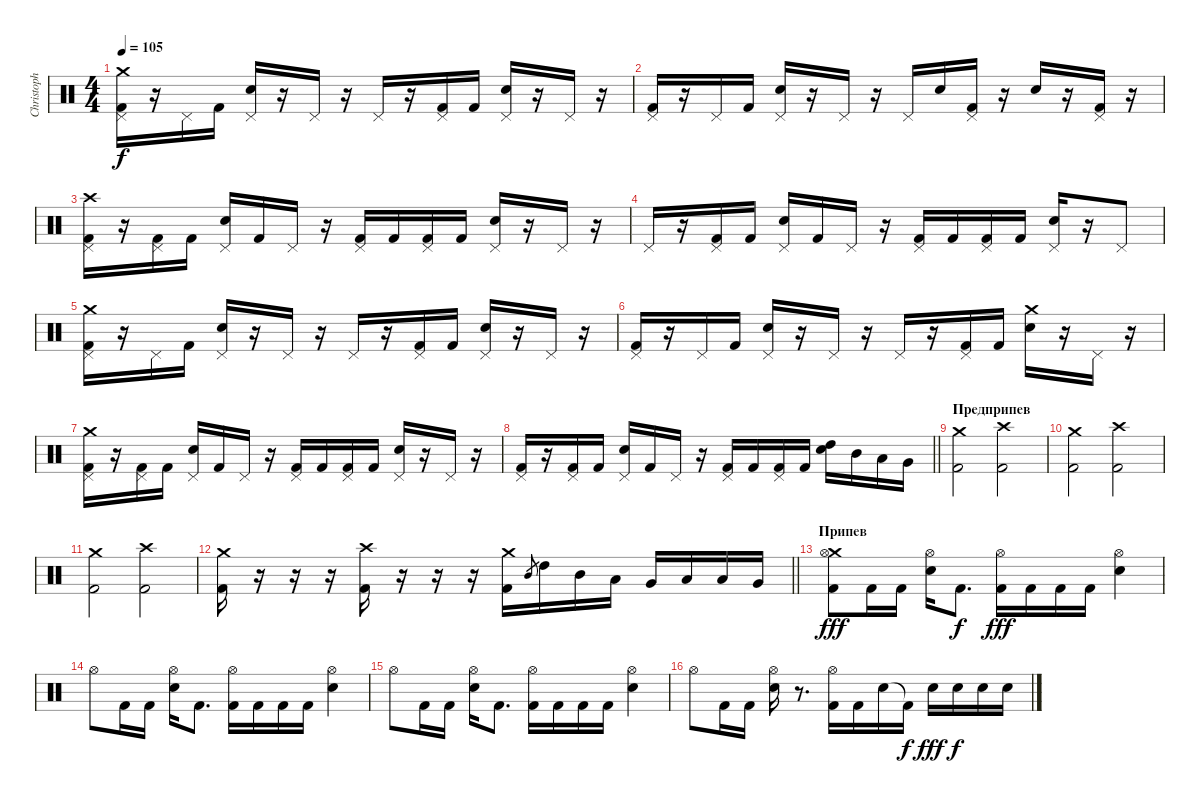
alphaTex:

\track ("Christoph Schneider" "Christoph ") {instrument percussion}
\staff {score}
\articulation defaults
\ts (4 4)
\tempo 105
\clef neutral
\ks c
("Pedal Hi-Hat (hit)" "Kick (hit) 2" "Crash medium (hit)").16{dy f} r.16 "Pedal Hi-Hat (hit)".16 "Kick (hit) 2".16 ("Pedal Hi-Hat (hit)" "Electric Snare (hit)").16 r.16 "Pedal Hi-Hat (hit)".16 r.16 "Pedal Hi-Hat (hit)".16 r.16 ("Pedal Hi-Hat (hit)" "Kick (hit) 2").16 "Kick (hit) 2".16 ("Pedal Hi-Hat (hit)" "Electric Snare (hit)").16 r.16 "Pedal Hi-Hat (hit)".16 r.16 |
("Pedal Hi-Hat (hit)" "Kick (hit) 2").16 r.16 "Pedal Hi-Hat (hit)".16 "Kick (hit) 2".16 ("Pedal Hi-Hat (hit)" "Electric Snare (hit)").16 r.16 "Pedal Hi-Hat (hit)".16 r.16 "Pedal Hi-Hat (hit)".16 "Electric Snare (hit)".16 ("Pedal Hi-Hat (hit)" "Kick (hit) 2").16 r.16 "Electric Snare (hit)".16 r.16 ("Pedal Hi-Hat (hit)" "Kick (hit) 2").16 r.16 |
("Kick (hit) 2" "Crash high (hit)" "Pedal Hi-Hat (hit)").16 r.16 ("Pedal Hi-Hat (hit)" "Kick (hit) 2").16 "Kick (hit) 2".16 ("Pedal Hi-Hat (hit)" "Electric Snare (hit)").16 "Kick (hit) 2".16 "Pedal Hi-Hat (hit)".16 r.16 ("Pedal Hi-Hat (hit)" "Kick (hit) 2").16 "Kick (hit) 2".16 ("Pedal Hi-Hat (hit)" "Kick (hit) 2").16 "Kick (hit) 2".16 ("Pedal Hi-Hat (hit)" "Electric Snare (hit)").16 r.16 "Pedal Hi-Hat (hit)".16 r.16 |
"Pedal Hi-Hat (hit)".16 r.16 ("Pedal Hi-Hat (hit)" "Kick (hit) 2").16 "Kick (hit) 2".16 ("Pedal Hi-Hat (hit)" "Electric Snare (hit)").16 "Kick (hit) 2".16 "Pedal Hi-Hat (hit)".16 r.16 ("Pedal Hi-Hat (hit)" "Kick (hit) 2").16 "Kick (hit) 2".16 ("Pedal Hi-Hat (hit)" "Kick (hit) 2").16 "Kick (hit) 2".16 ("Pedal Hi-Hat (hit)" "Electric Snare (hit)").16 r.16 "Pedal Hi-Hat (hit)".8 |
("Pedal Hi-Hat (hit)" "Kick (hit) 2" "Crash medium (hit)").16 r.16 "Pedal Hi-Hat (hit)".16 "Kick (hit) 2".16 ("Pedal Hi-Hat (hit)" "Electric Snare (hit)").16 r.16 "Pedal Hi-Hat (hit)".16 r.16 "Pedal Hi-Hat (hit)".16 r.16 ("Pedal Hi-Hat (hit)" "Kick (hit) 2").16 "Kick (hit) 2".16 ("Pedal Hi-Hat (hit)" "Electric Snare (hit)").16 r.16 "Pedal Hi-Hat (hit)".16 r.16 |
("Pedal Hi-Hat (hit)" "Kick (hit) 2").16 r.16 "Pedal Hi-Hat (hit)".16 "Kick (hit) 2".16 ("Pedal Hi-Hat (hit)" "Electric Snare (hit)").16 r.16 "Pedal Hi-Hat (hit)".16 r.16 "Pedal Hi-Hat (hit)".16 r.16 ("Pedal Hi-Hat (hit)" "Kick (hit) 2").16 "Kick (hit) 2".16 ("Crash medium (hit)" "Electric Snare (hit)").16 r.16 "Pedal Hi-Hat (hit)".16 r.16 |
("Crash medium (hit)" "Kick (hit) 2" "Pedal Hi-Hat (hit)").16 r.16 ("Pedal Hi-Hat (hit)" "Kick (hit) 2").16 "Kick (hit) 2".16 ("Pedal Hi-Hat (hit)" "Electric Snare (hit)").16 "Kick (hit) 2".16 "Pedal Hi-Hat (hit)".16 r.16 ("Pedal Hi-Hat (hit)" "Kick (hit) 2").16 "Kick (hit) 2".16 ("Pedal Hi-Hat (hit)" "Kick (hit) 2").16 "Kick (hit) 2".16 ("Pedal Hi-Hat (hit)" "Electric Snare (hit)").16 r.16 "Pedal Hi-Hat (hit)".16 r.16 |
\barLineRight lightlight
("Kick (hit) 2" "Pedal Hi-Hat (hit)").16 r.16 ("Pedal Hi-Hat (hit)" "Kick (hit) 2").16 "Kick (hit) 2".16 ("Pedal Hi-Hat (hit)" "Electric Snare (hit)").16 "Kick (hit) 2".16 "Pedal Hi-Hat (hit)".16 r.16 ("Pedal Hi-Hat (hit)" "Kick (hit) 2").16 "Kick (hit) 2".16 ("Pedal Hi-Hat (hit)" "Kick (hit) 2").16 "Kick (hit) 2".16 ("Electric Snare (hit)" "High Tom (hit)").16 "Mid Tom (hit)".16 "Low Tom (hit)".16 "Very Low Tom (hit)".16 |
\section ("" "Предприпев")
("Crash medium (hit)" "Kick (hit) 2").2{volume 16} ("Crash high (hit)" "Kick (hit) 2").2 |
("Crash medium (hit)" "Kick (hit) 2").2 ("Crash high (hit)" "Kick (hit) 2").2 |
("Crash medium (hit)" "Kick (hit) 2").2 ("Crash high (hit)" "Kick (hit) 2").2 |
\barLineRight lightlight
("Crash medium (hit)" "Kick (hit) 2").16 r.16 r.16 r.16 ("Crash high (hit)" "Kick (hit) 2").16 r.16 r.16 r.16 ("Crash medium (hit)" "Kick (hit) 2").16 "Mid Tom (hit)".8{gr} "High Tom (hit)".16 "Mid Tom (hit)".16 "Low Tom (hit)".16 "Very Low Tom (hit)".16 "Low Floor Tom (hit)".16 "Low Tom (hit)".16 "Very Low Tom (hit)".16 |
\section ("" "Припев")
("Crash medium (hit)" "Kick (hit) 2" "Hi-Hat (open)").8{dy fff} "Kick (hit) 2".16 "Kick (hit) 2".16 ("Hi-Hat (open)" "Electric Snare (hit)").16 "Kick (hit) 2".8{d dy f} ("Hi-Hat (open)" "Kick (hit) 2").16{dy fff} "Kick (hit) 2".16 "Kick (hit) 2".16 "Kick (hit) 2".16 ("Hi-Hat (open)" "Electric Snare (hit)").4 |
"Hi-Hat (open)".8 "Kick (hit) 2".16 "Kick (hit) 2".16 ("Hi-Hat (open)" "Electric Snare (hit)").16 "Kick (hit) 2".8{d} ("Hi-Hat (open)" "Kick (hit) 2").16 "Kick (hit) 2".16 "Kick (hit) 2".16 "Kick (hit) 2".16 ("Hi-Hat (open)" "Electric Snare (hit)").4 |
"Hi-Hat (open)".8 "Kick (hit) 2".16 "Kick (hit) 2".16 ("Hi-Hat (open)" "Electric Snare (hit)").16 "Kick (hit) 2".8{d} ("Hi-Hat (open)" "Kick (hit) 2").16 "Kick (hit) 2".16 "Kick (hit) 2".16 "Kick (hit) 2".16 ("Hi-Hat (open)" "Electric Snare (hit)").4 |
"Hi-Hat (open)".8 "Kick (hit) 2".16 "Kick (hit) 2".16 ("Hi-Hat (open)" "Electric Snare (hit)").16 r.8{d} ("Hi-Hat (open)" "Kick (hit) 2").16 "Kick (hit) 2".16 "Electric Snare (hit)".16 "Kick (hit) 2"{t}.16{dy f} "Electric Snare (hit)".16{dy fff} "Electric Snare (hit)".16{dy f} "Electric Snare (hit)".16 "Electric Snare (hit)".16
